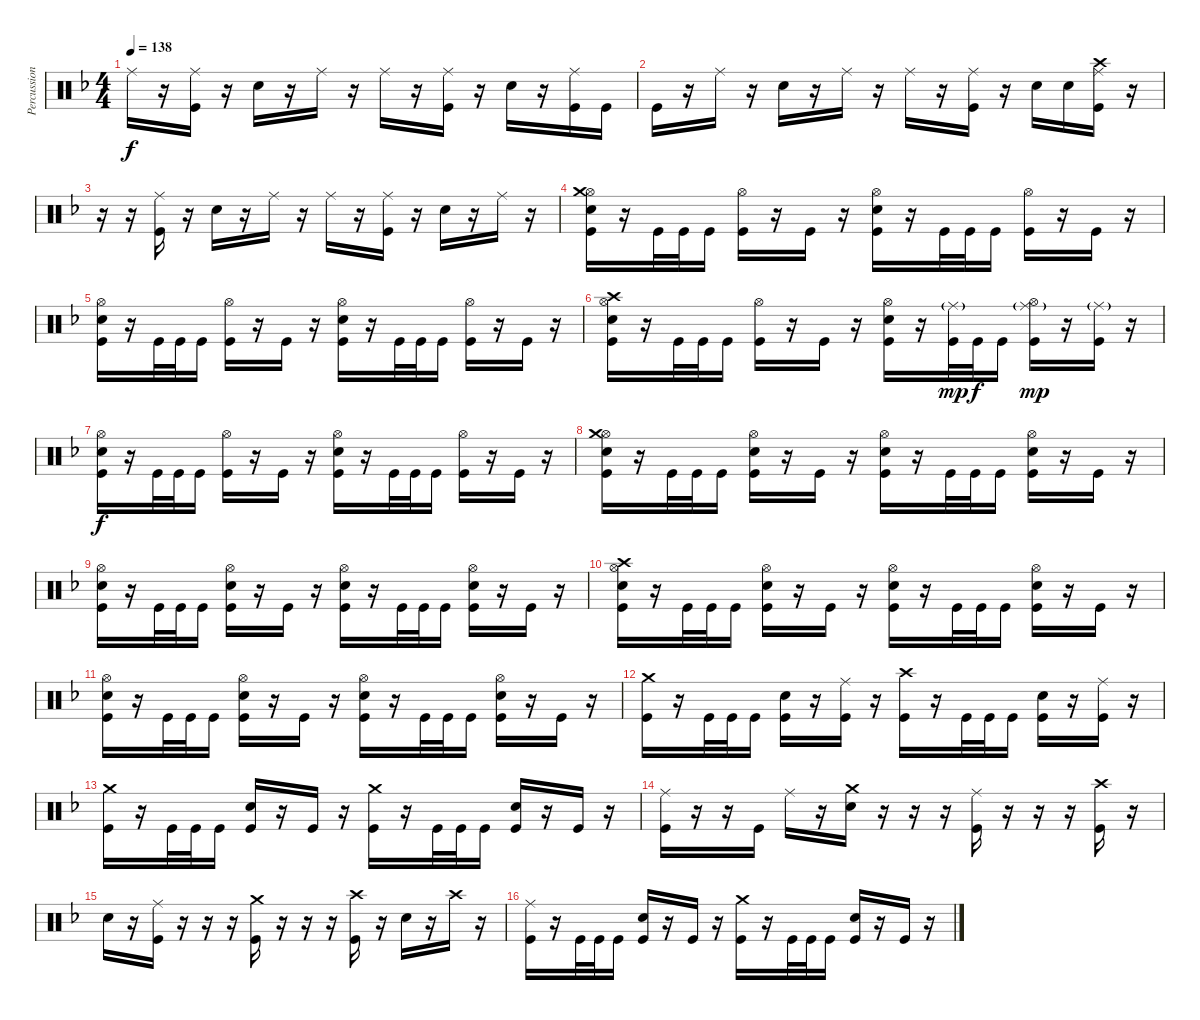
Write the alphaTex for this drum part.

\track ("Percussion" "Percussion") {instrument percussion}
\staff {score}
\articulation defaults
\ts (4 4)
\tempo 138
\clef neutral
\ks f "Ride (middle)".16{dy f}
r.16 ("Ride (middle)" "Kick (hit)").16 r.16 "Electric Snare (hit)".16 r.16 "Ride (middle)".16 r.16 "Ride (middle)".16 r.16 ("Ride (middle)" "Kick (hit)").16 r.16 "Electric Snare (hit)".16 r.16 ("Ride (middle)" "Kick (hit)").16 "Kick (hit)".16 |
"Kick (hit)".16 r.16 "Ride (middle)".16 r.16 "Electric Snare (hit)".16 r.16 "Ride (middle)".16 r.16 "Ride (middle)".16 r.16 ("Ride (middle)" "Kick (hit)").16 r.16 "Electric Snare (hit)".16 "Electric Snare (hit)".16 ("Ride (middle)" "Crash high (hit)" "Kick (hit)").16 r.16 |
r.16 r.16 ("Ride (middle)" "Kick (hit)").16 r.16 "Electric Snare (hit)".16 r.16 "Ride (middle)".16 r.16 "Ride (middle)".16 r.16 ("Ride (middle)" "Kick (hit)").16 r.16 "Electric Snare (hit)".16 r.16 "Ride (middle)".16 r.16 |
("Hi-Hat (open)" "Crash medium (hit)" "Electric Snare (hit)" "Kick (hit)").16 r.16 "Kick (hit)".32 "Kick (hit)".32 "Kick (hit)".16 ("Hi-Hat (open)" "Kick (hit)").16 r.16 "Kick (hit)".16 r.16 ("Hi-Hat (open)" "Electric Snare (hit)" "Kick (hit)").16 r.16 "Kick (hit)".32 "Kick (hit)".32 "Kick (hit)".16 ("Hi-Hat (open)" "Kick (hit)").16 r.16 "Kick (hit)".16 r.16 |
("Hi-Hat (open)" "Electric Snare (hit)" "Kick (hit)").16 r.16 "Kick (hit)".32 "Kick (hit)".32 "Kick (hit)".16 ("Hi-Hat (open)" "Kick (hit)").16 r.16 "Kick (hit)".16 r.16 ("Hi-Hat (open)" "Electric Snare (hit)" "Kick (hit)").16 r.16 "Kick (hit)".32 "Kick (hit)".32 "Kick (hit)".16 ("Hi-Hat (open)" "Kick (hit)").16 r.16 "Kick (hit)".16 r.16 |
("Hi-Hat (open)" "Crash high (hit)" "Electric Snare (hit)" "Kick (hit)").16 r.16 "Kick (hit)".32 "Kick (hit)".32 "Kick (hit)".16 ("Hi-Hat (open)" "Kick (hit)").16 r.16 "Kick (hit)".16 r.16 ("Hi-Hat (open)" "Electric Snare (hit)" "Kick (hit)").16 r.16 ("Ride (middle)"{g} "Kick (hit)").32{dy mp} "Kick (hit)".32{dy f} "Kick (hit)".16 ("Hi-Hat (open)" "Ride (middle)"{g} "Kick (hit)").16{dy mp} r.16 ("Ride (middle)"{g} "Kick (hit)").16 r.16 |
("Hi-Hat (open)" "Electric Snare (hit)" "Kick (hit)").16{dy f} r.16 "Kick (hit)".32 "Kick (hit)".32 "Kick (hit)".16 ("Hi-Hat (open)" "Kick (hit)").16 r.16 "Kick (hit)".16 r.16 ("Hi-Hat (open)" "Electric Snare (hit)" "Kick (hit)").16 r.16 "Kick (hit)".32 "Kick (hit)".32 "Kick (hit)".16 ("Hi-Hat (open)" "Kick (hit)").16 r.16 "Kick (hit)".16 r.16 |
("Hi-Hat (open)" "Crash medium (hit)" "Electric Snare (hit)" "Kick (hit)").16 r.16 "Kick (hit)".32 "Kick (hit)".32 "Kick (hit)".16 ("Hi-Hat (open)" "Electric Snare (hit)" "Kick (hit)").16 r.16 "Kick (hit)".16 r.16 ("Hi-Hat (open)" "Electric Snare (hit)" "Kick (hit)").16 r.16 "Kick (hit)".32 "Kick (hit)".32 "Kick (hit)".16 ("Hi-Hat (open)" "Electric Snare (hit)" "Kick (hit)").16 r.16 "Kick (hit)".16 r.16 |
("Hi-Hat (open)" "Electric Snare (hit)" "Kick (hit)").16 r.16 "Kick (hit)".32 "Kick (hit)".32 "Kick (hit)".16 ("Hi-Hat (open)" "Electric Snare (hit)" "Kick (hit)").16 r.16 "Kick (hit)".16 r.16 ("Hi-Hat (open)" "Electric Snare (hit)" "Kick (hit)").16 r.16 "Kick (hit)".32 "Kick (hit)".32 "Kick (hit)".16 ("Hi-Hat (open)" "Electric Snare (hit)" "Kick (hit)").16 r.16 "Kick (hit)".16 r.16 |
("Hi-Hat (open)" "Crash high (hit)" "Electric Snare (hit)" "Kick (hit)").16 r.16 "Kick (hit)".32 "Kick (hit)".32 "Kick (hit)".16 ("Hi-Hat (open)" "Electric Snare (hit)" "Kick (hit)").16 r.16 "Kick (hit)".16 r.16 ("Hi-Hat (open)" "Electric Snare (hit)" "Kick (hit)").16 r.16 "Kick (hit)".32 "Kick (hit)".32 "Kick (hit)".16 ("Hi-Hat (open)" "Electric Snare (hit)" "Kick (hit)").16 r.16 "Kick (hit)".16 r.16 |
("Hi-Hat (open)" "Electric Snare (hit)" "Kick (hit)").16 r.16 "Kick (hit)".32 "Kick (hit)".32 "Kick (hit)".16 ("Hi-Hat (open)" "Electric Snare (hit)" "Kick (hit)").16 r.16 "Kick (hit)".16 r.16 ("Hi-Hat (open)" "Electric Snare (hit)" "Kick (hit)").16 r.16 "Kick (hit)".32 "Kick (hit)".32 "Kick (hit)".16 ("Hi-Hat (open)" "Electric Snare (hit)" "Kick (hit)").16 r.16 "Kick (hit)".16 r.16 |
("Crash medium (hit)" "Kick (hit)").16 r.16 "Kick (hit)".32 "Kick (hit)".32 "Kick (hit)".16 ("Electric Snare (hit)" "Kick (hit)").16 r.16 ("Ride (middle)" "Kick (hit)").16 r.16 ("Crash high (hit)" "Kick (hit)").16 r.16 "Kick (hit)".32 "Kick (hit)".32 "Kick (hit)".16 ("Electric Snare (hit)" "Kick (hit)").16 r.16 ("Ride (middle)" "Kick (hit)").16 r.16 |
("Crash medium (hit)" "Kick (hit)").16 r.16 "Kick (hit)".32 "Kick (hit)".32 "Kick (hit)".16 ("Electric Snare (hit)" "Kick (hit)").16 r.16 "Kick (hit)".16 r.16 ("Crash medium (hit)" "Kick (hit)").16 r.16 "Kick (hit)".32 "Kick (hit)".32 "Kick (hit)".16 ("Electric Snare (hit)" "Kick (hit)").16 r.16 "Kick (hit)".16 r.16 |
("Ride (middle)" "Kick (hit)").16 r.16 r.16 "Kick (hit)".16 "Ride (middle)".16 r.16 ("Crash medium (hit)" "Electric Snare (hit)").16 r.16 r.16 r.16 ("Ride (middle)" "Kick (hit)").16 r.16 r.16 r.16 ("Crash high (hit)" "Kick (hit)").16 r.16 |
"Electric Snare (hit)".16 r.16 ("Ride (middle)" "Kick (hit)").16 r.16 r.16 r.16 ("Crash medium (hit)" "Kick (hit)").16 r.16 r.16 r.16 ("Crash high (hit)" "Kick (hit)").16 r.16 "Electric Snare (hit)".16 r.16 "Crash high (hit)".16 r.16 |
("Ride (middle)" "Kick (hit)").16 r.16 "Kick (hit)".32 "Kick (hit)".32 "Kick (hit)".16 ("Electric Snare (hit)" "Kick (hit)").16 r.16 "Kick (hit)".16 r.16 ("Crash medium (hit)" "Kick (hit)").16 r.16 "Kick (hit)".32 "Kick (hit)".32 "Kick (hit)".16 ("Electric Snare (hit)" "Kick (hit)").16 r.16 "Kick (hit)".16 r.16
